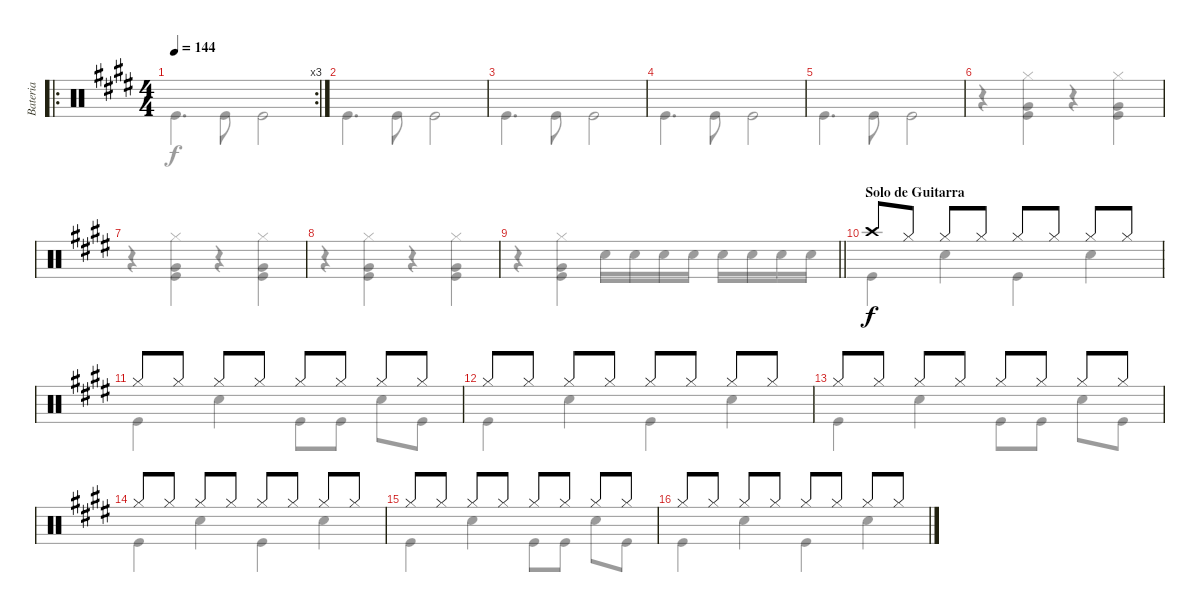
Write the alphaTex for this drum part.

\track ("Bateria" "Bateria") {instrument percussion}
\staff {score}
\articulation defaults
\voice
\ro
\rc 3
\ts (4 4)
\tempo 144
\clef neutral
\ks e
|
|
|
|
|
|
|
|
\barLineRight lightlight
|
\section ("" "Solo de Guitarra")
"Crash high (hit)".8 "Hi-Hat (closed)".8 "Hi-Hat (closed)".8 "Hi-Hat (closed)".8 "Hi-Hat (closed)".8 "Hi-Hat (closed)".8 "Hi-Hat (closed)".8 "Hi-Hat (closed)".8 |
"Hi-Hat (closed)".8 "Hi-Hat (closed)".8 "Hi-Hat (closed)".8 "Hi-Hat (closed)".8 "Hi-Hat (closed)".8 "Hi-Hat (closed)".8 "Hi-Hat (closed)".8 "Hi-Hat (closed)".8 |
"Hi-Hat (closed)".8 "Hi-Hat (closed)".8 "Hi-Hat (closed)".8 "Hi-Hat (closed)".8 "Hi-Hat (closed)".8 "Hi-Hat (closed)".8 "Hi-Hat (closed)".8 "Hi-Hat (closed)".8 |
"Hi-Hat (closed)".8 "Hi-Hat (closed)".8 "Hi-Hat (closed)".8 "Hi-Hat (closed)".8 "Hi-Hat (closed)".8 "Hi-Hat (closed)".8 "Hi-Hat (closed)".8 "Hi-Hat (closed)".8 |
"Hi-Hat (closed)".8 "Hi-Hat (closed)".8 "Hi-Hat (closed)".8 "Hi-Hat (closed)".8 "Hi-Hat (closed)".8 "Hi-Hat (closed)".8 "Hi-Hat (closed)".8 "Hi-Hat (closed)".8 |
"Hi-Hat (closed)".8 "Hi-Hat (closed)".8 "Hi-Hat (closed)".8 "Hi-Hat (closed)".8 "Hi-Hat (closed)".8 "Hi-Hat (closed)".8 "Hi-Hat (closed)".8 "Hi-Hat (closed)".8 |
"Hi-Hat (closed)".8 "Hi-Hat (closed)".8 "Hi-Hat (closed)".8 "Hi-Hat (closed)".8 "Hi-Hat (closed)".8 "Hi-Hat (closed)".8 "Hi-Hat (closed)".8 "Hi-Hat (closed)".8
\voice
\clef neutral
\ottava regular
\simile none
\ks e "Kick (hit)".4{d dy f} "Kick (hit)".8 "Kick (hit)".2
|
"Kick (hit)".4{d} "Kick (hit)".8 "Kick (hit)".2 |
"Kick (hit)".4{d} "Kick (hit)".8 "Kick (hit)".2 |
"Kick (hit)".4{d} "Kick (hit)".8 "Kick (hit)".2 |
"Kick (hit)".4{d} "Kick (hit)".8 "Kick (hit)".2 |
r.4 ("Hi-Hat (closed)" "Very Low Tom (hit)" "Kick (hit)").4 r.4 ("Hi-Hat (closed)" "Very Low Tom (hit)" "Kick (hit)").4 |
r.4 ("Hi-Hat (closed)" "Very Low Tom (hit)" "Kick (hit)").4 r.4 ("Hi-Hat (closed)" "Very Low Tom (hit)" "Kick (hit)").4 |
r.4 ("Hi-Hat (closed)" "Very Low Tom (hit)" "Kick (hit)").4 r.4 ("Hi-Hat (closed)" "Very Low Tom (hit)" "Kick (hit)").4 |
\barLineRight lightlight
r.4 ("Hi-Hat (closed)" "Very Low Tom (hit)" "Kick (hit)").4 "Snare (hit) 2".16 "Snare (hit) 2".16 "Snare (hit) 2".16 "Snare (hit) 2".16 "Snare (hit) 2".16 "Snare (hit) 2".16 "Snare (hit) 2".16 "Snare (hit) 2".16 |
"Kick (hit)".4 "Snare (hit) 2".4 "Kick (hit)".4 "Snare (hit) 2".4 |
"Kick (hit)".4 "Snare (hit) 2".4 "Kick (hit)".8 "Kick (hit)".8 "Snare (hit) 2".8 "Kick (hit)".8 |
"Kick (hit)".4 "Snare (hit) 2".4 "Kick (hit)".4 "Snare (hit) 2".4 |
"Kick (hit)".4 "Snare (hit) 2".4 "Kick (hit)".8 "Kick (hit)".8 "Snare (hit) 2".8 "Kick (hit)".8 |
"Kick (hit)".4 "Snare (hit) 2".4 "Kick (hit)".4 "Snare (hit) 2".4 |
"Kick (hit)".4 "Snare (hit) 2".4 "Kick (hit)".8 "Kick (hit)".8 "Snare (hit) 2".8 "Kick (hit)".8 |
"Kick (hit)".4 "Snare (hit) 2".4 "Kick (hit)".4 "Snare (hit) 2".4
